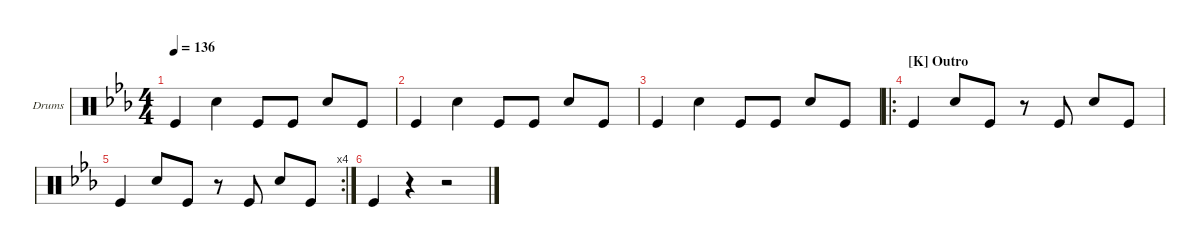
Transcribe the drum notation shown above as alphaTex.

\defaultSystemsLayout 4
\hideDynamics
\bracketExtendMode groupsimilarinstruments
\firstSystemTrackNameOrientation horizontal
\otherSystemsTrackNameOrientation horizontal
\track ("Drumkit" "Drums") {multiBarRest instrument percussion}
\staff {score}
\articulation defaults
\ts (4 4)
\tempo 136
\clef neutral
\ks eb "Kick (hit)".4{dy mf} "Snare (hit) 2".4 "Kick (hit)".8 "Kick (hit)".8 "Snare (hit) 2".8 "Kick (hit)".8
|
"Kick (hit)".4 "Snare (hit) 2".4 "Kick (hit)".8 "Kick (hit)".8 "Snare (hit) 2".8 "Kick (hit)".8 |
"Kick (hit)".4 "Snare (hit) 2".4 "Kick (hit)".8 "Kick (hit)".8 "Snare (hit) 2".8 "Kick (hit)".8 |
\ro
\section ("K" "Outro")
"Kick (hit)".4 "Snare (hit) 2".8 "Kick (hit)".8 r.8 "Kick (hit)".8 "Snare (hit) 2".8 "Kick (hit)".8 |
\rc 4 "Kick (hit)".4 "Snare (hit) 2".8 "Kick (hit)".8
r.8 "Kick (hit)".8 "Snare (hit) 2".8 "Kick (hit)".8 |
"Kick (hit)".4 r.4 r.2
